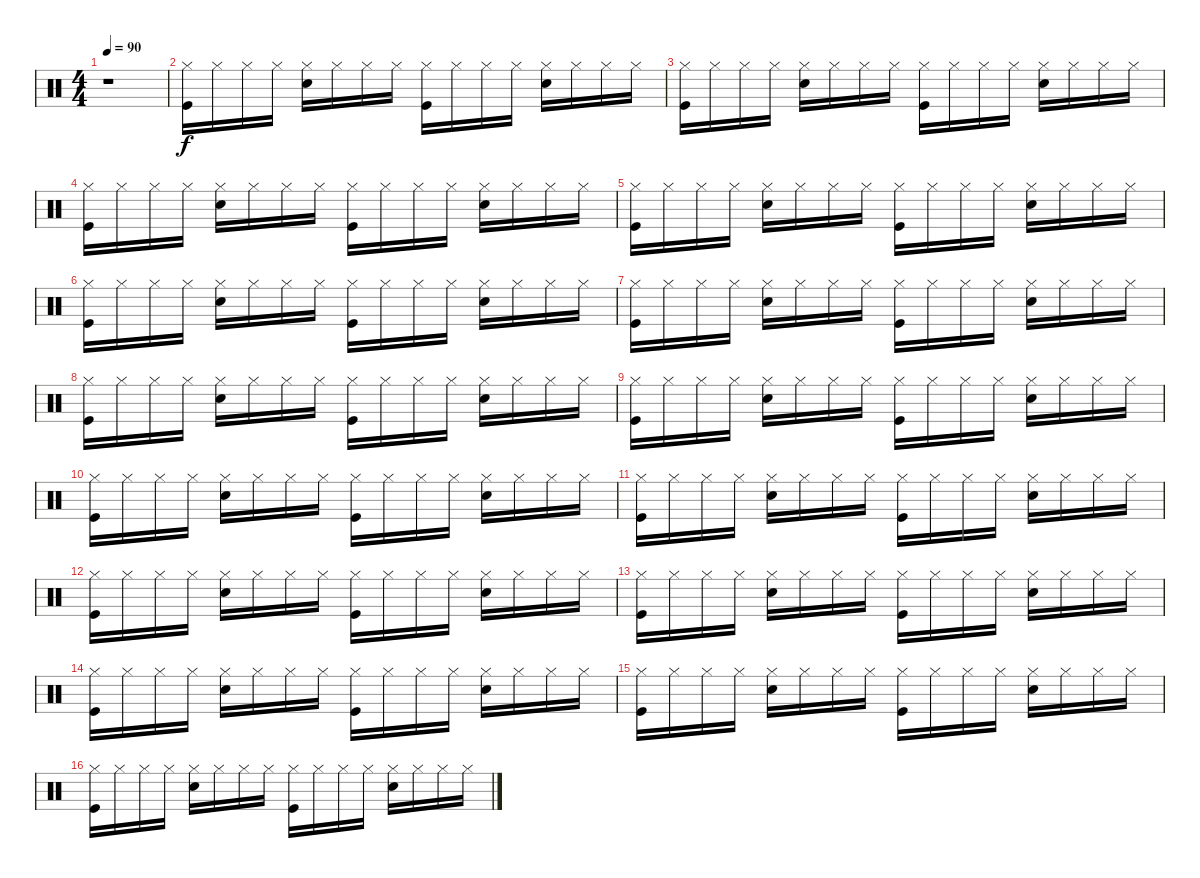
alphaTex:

\track "" {instrument percussion}
\staff {score}
\articulation defaults
\ts (4 4)
\tempo 90
\clef neutral
\ks c
r.1{dy f} |
("Hi-Hat (closed)" "Kick (hit)").16 "Hi-Hat (closed)".16 "Hi-Hat (closed)".16 "Hi-Hat (closed)".16 ("Hi-Hat (closed)" "Snare (hit) 2").16 "Hi-Hat (closed)".16 "Hi-Hat (closed)".16 "Hi-Hat (closed)".16 ("Hi-Hat (closed)" "Kick (hit)").16 "Hi-Hat (closed)".16 "Hi-Hat (closed)".16 "Hi-Hat (closed)".16 ("Hi-Hat (closed)" "Snare (hit) 2").16 "Hi-Hat (closed)".16 "Hi-Hat (closed)".16 "Hi-Hat (closed)".16 |
("Hi-Hat (closed)" "Kick (hit)").16 "Hi-Hat (closed)".16 "Hi-Hat (closed)".16 "Hi-Hat (closed)".16 ("Hi-Hat (closed)" "Snare (hit) 2").16 "Hi-Hat (closed)".16 "Hi-Hat (closed)".16 "Hi-Hat (closed)".16 ("Hi-Hat (closed)" "Kick (hit)").16 "Hi-Hat (closed)".16 "Hi-Hat (closed)".16 "Hi-Hat (closed)".16 ("Hi-Hat (closed)" "Snare (hit) 2").16 "Hi-Hat (closed)".16 "Hi-Hat (closed)".16 "Hi-Hat (closed)".16 |
("Hi-Hat (closed)" "Kick (hit)").16 "Hi-Hat (closed)".16 "Hi-Hat (closed)".16 "Hi-Hat (closed)".16 ("Hi-Hat (closed)" "Snare (hit) 2").16 "Hi-Hat (closed)".16 "Hi-Hat (closed)".16 "Hi-Hat (closed)".16 ("Hi-Hat (closed)" "Kick (hit)").16 "Hi-Hat (closed)".16 "Hi-Hat (closed)".16 "Hi-Hat (closed)".16 ("Hi-Hat (closed)" "Snare (hit) 2").16 "Hi-Hat (closed)".16 "Hi-Hat (closed)".16 "Hi-Hat (closed)".16 |
("Hi-Hat (closed)" "Kick (hit)").16 "Hi-Hat (closed)".16 "Hi-Hat (closed)".16 "Hi-Hat (closed)".16 ("Hi-Hat (closed)" "Snare (hit) 2").16 "Hi-Hat (closed)".16 "Hi-Hat (closed)".16 "Hi-Hat (closed)".16 ("Hi-Hat (closed)" "Kick (hit)").16 "Hi-Hat (closed)".16 "Hi-Hat (closed)".16 "Hi-Hat (closed)".16 ("Hi-Hat (closed)" "Snare (hit) 2").16 "Hi-Hat (closed)".16 "Hi-Hat (closed)".16 "Hi-Hat (closed)".16 |
("Hi-Hat (closed)" "Kick (hit)").16 "Hi-Hat (closed)".16 "Hi-Hat (closed)".16 "Hi-Hat (closed)".16 ("Hi-Hat (closed)" "Snare (hit) 2").16 "Hi-Hat (closed)".16 "Hi-Hat (closed)".16 "Hi-Hat (closed)".16 ("Hi-Hat (closed)" "Kick (hit)").16 "Hi-Hat (closed)".16 "Hi-Hat (closed)".16 "Hi-Hat (closed)".16 ("Hi-Hat (closed)" "Snare (hit) 2").16 "Hi-Hat (closed)".16 "Hi-Hat (closed)".16 "Hi-Hat (closed)".16 |
("Hi-Hat (closed)" "Kick (hit)").16 "Hi-Hat (closed)".16 "Hi-Hat (closed)".16 "Hi-Hat (closed)".16 ("Hi-Hat (closed)" "Snare (hit) 2").16 "Hi-Hat (closed)".16 "Hi-Hat (closed)".16 "Hi-Hat (closed)".16 ("Hi-Hat (closed)" "Kick (hit)").16 "Hi-Hat (closed)".16 "Hi-Hat (closed)".16 "Hi-Hat (closed)".16 ("Hi-Hat (closed)" "Snare (hit) 2").16 "Hi-Hat (closed)".16 "Hi-Hat (closed)".16 "Hi-Hat (closed)".16 |
("Hi-Hat (closed)" "Kick (hit)").16 "Hi-Hat (closed)".16 "Hi-Hat (closed)".16 "Hi-Hat (closed)".16 ("Hi-Hat (closed)" "Snare (hit) 2").16 "Hi-Hat (closed)".16 "Hi-Hat (closed)".16 "Hi-Hat (closed)".16 ("Hi-Hat (closed)" "Kick (hit)").16 "Hi-Hat (closed)".16 "Hi-Hat (closed)".16 "Hi-Hat (closed)".16 ("Hi-Hat (closed)" "Snare (hit) 2").16 "Hi-Hat (closed)".16 "Hi-Hat (closed)".16 "Hi-Hat (closed)".16 |
("Hi-Hat (closed)" "Kick (hit)").16 "Hi-Hat (closed)".16 "Hi-Hat (closed)".16 "Hi-Hat (closed)".16 ("Hi-Hat (closed)" "Snare (hit) 2").16 "Hi-Hat (closed)".16 "Hi-Hat (closed)".16 "Hi-Hat (closed)".16 ("Hi-Hat (closed)" "Kick (hit)").16 "Hi-Hat (closed)".16 "Hi-Hat (closed)".16 "Hi-Hat (closed)".16 ("Hi-Hat (closed)" "Snare (hit) 2").16 "Hi-Hat (closed)".16 "Hi-Hat (closed)".16 "Hi-Hat (closed)".16 |
("Hi-Hat (closed)" "Kick (hit)").16 "Hi-Hat (closed)".16 "Hi-Hat (closed)".16 "Hi-Hat (closed)".16 ("Hi-Hat (closed)" "Snare (hit) 2").16 "Hi-Hat (closed)".16 "Hi-Hat (closed)".16 "Hi-Hat (closed)".16 ("Hi-Hat (closed)" "Kick (hit)").16 "Hi-Hat (closed)".16 "Hi-Hat (closed)".16 "Hi-Hat (closed)".16 ("Hi-Hat (closed)" "Snare (hit) 2").16 "Hi-Hat (closed)".16 "Hi-Hat (closed)".16 "Hi-Hat (closed)".16 |
("Hi-Hat (closed)" "Kick (hit)").16 "Hi-Hat (closed)".16 "Hi-Hat (closed)".16 "Hi-Hat (closed)".16 ("Hi-Hat (closed)" "Snare (hit) 2").16 "Hi-Hat (closed)".16 "Hi-Hat (closed)".16 "Hi-Hat (closed)".16 ("Hi-Hat (closed)" "Kick (hit)").16 "Hi-Hat (closed)".16 "Hi-Hat (closed)".16 "Hi-Hat (closed)".16 ("Hi-Hat (closed)" "Snare (hit) 2").16 "Hi-Hat (closed)".16 "Hi-Hat (closed)".16 "Hi-Hat (closed)".16 |
("Hi-Hat (closed)" "Kick (hit)").16 "Hi-Hat (closed)".16 "Hi-Hat (closed)".16 "Hi-Hat (closed)".16 ("Hi-Hat (closed)" "Snare (hit) 2").16 "Hi-Hat (closed)".16 "Hi-Hat (closed)".16 "Hi-Hat (closed)".16 ("Hi-Hat (closed)" "Kick (hit)").16 "Hi-Hat (closed)".16 "Hi-Hat (closed)".16 "Hi-Hat (closed)".16 ("Hi-Hat (closed)" "Snare (hit) 2").16 "Hi-Hat (closed)".16 "Hi-Hat (closed)".16 "Hi-Hat (closed)".16 |
("Hi-Hat (closed)" "Kick (hit)").16 "Hi-Hat (closed)".16 "Hi-Hat (closed)".16 "Hi-Hat (closed)".16 ("Hi-Hat (closed)" "Snare (hit) 2").16 "Hi-Hat (closed)".16 "Hi-Hat (closed)".16 "Hi-Hat (closed)".16 ("Hi-Hat (closed)" "Kick (hit)").16 "Hi-Hat (closed)".16 "Hi-Hat (closed)".16 "Hi-Hat (closed)".16 ("Hi-Hat (closed)" "Snare (hit) 2").16 "Hi-Hat (closed)".16 "Hi-Hat (closed)".16 "Hi-Hat (closed)".16 |
("Hi-Hat (closed)" "Kick (hit)").16 "Hi-Hat (closed)".16 "Hi-Hat (closed)".16 "Hi-Hat (closed)".16 ("Hi-Hat (closed)" "Snare (hit) 2").16 "Hi-Hat (closed)".16 "Hi-Hat (closed)".16 "Hi-Hat (closed)".16 ("Hi-Hat (closed)" "Kick (hit)").16 "Hi-Hat (closed)".16 "Hi-Hat (closed)".16 "Hi-Hat (closed)".16 ("Hi-Hat (closed)" "Snare (hit) 2").16 "Hi-Hat (closed)".16 "Hi-Hat (closed)".16 "Hi-Hat (closed)".16 |
("Hi-Hat (closed)" "Kick (hit)").16 "Hi-Hat (closed)".16 "Hi-Hat (closed)".16 "Hi-Hat (closed)".16 ("Hi-Hat (closed)" "Snare (hit) 2").16 "Hi-Hat (closed)".16 "Hi-Hat (closed)".16 "Hi-Hat (closed)".16 ("Hi-Hat (closed)" "Kick (hit)").16 "Hi-Hat (closed)".16 "Hi-Hat (closed)".16 "Hi-Hat (closed)".16 ("Hi-Hat (closed)" "Snare (hit) 2").16 "Hi-Hat (closed)".16 "Hi-Hat (closed)".16 "Hi-Hat (closed)".16 |
("Hi-Hat (closed)" "Kick (hit)").16 "Hi-Hat (closed)".16 "Hi-Hat (closed)".16 "Hi-Hat (closed)".16 ("Hi-Hat (closed)" "Snare (hit) 2").16 "Hi-Hat (closed)".16 "Hi-Hat (closed)".16 "Hi-Hat (closed)".16 ("Hi-Hat (closed)" "Kick (hit)").16 "Hi-Hat (closed)".16 "Hi-Hat (closed)".16 "Hi-Hat (closed)".16 ("Hi-Hat (closed)" "Snare (hit) 2").16 "Hi-Hat (closed)".16 "Hi-Hat (closed)".16 "Hi-Hat (closed)".16
